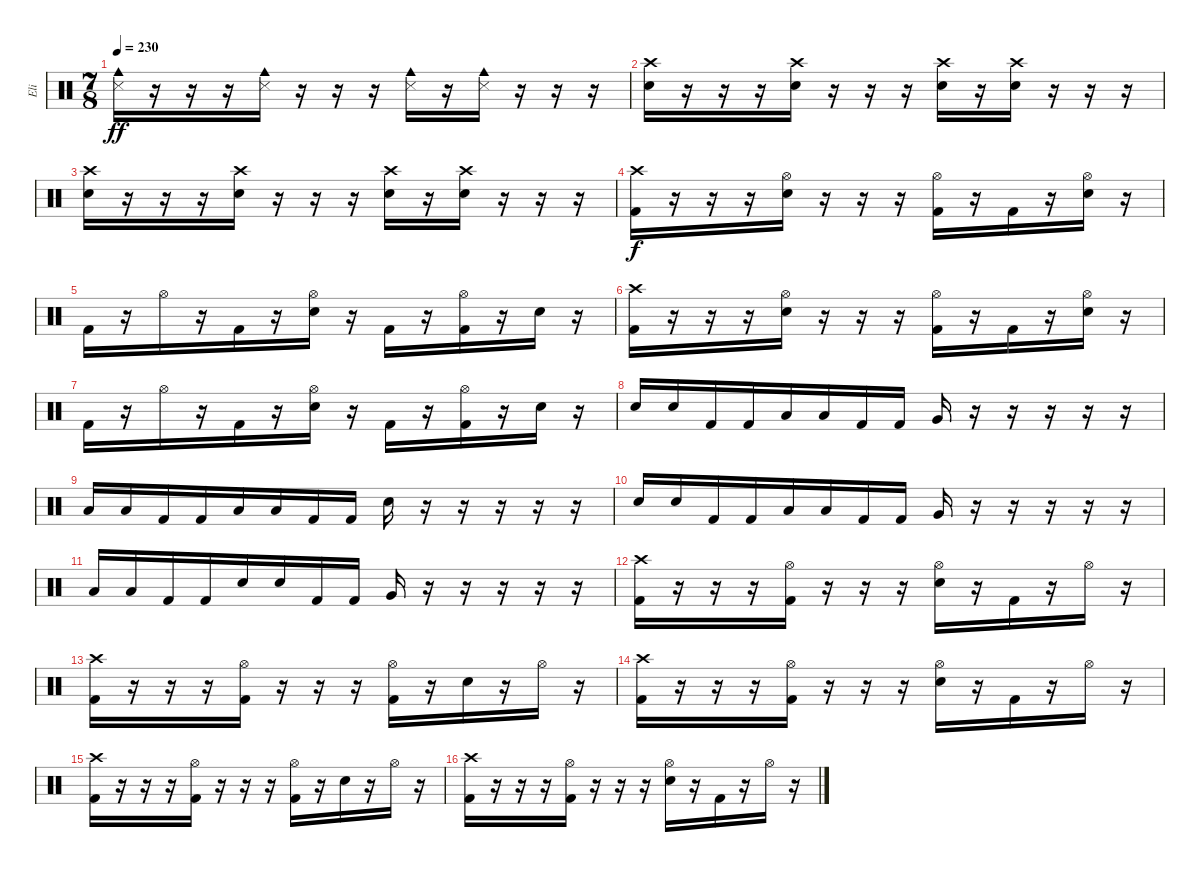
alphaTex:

\track ("Eli" "Eli") {instrument percussion}
\staff {score}
\articulation defaults
\ts (7 8)
\tempo 230
\clef neutral
\ks c
("Cowbell medium (hit)" "Snare (side stick) 3").16{dy ff} r.16 r.16 r.16 ("Cowbell medium (hit)" "Snare (side stick) 3").16 r.16 r.16 r.16 ("Cowbell medium (hit)" "Snare (side stick) 3").16 r.16 ("Cowbell medium (hit)" "Snare (side stick) 3").16 r.16 r.16 r.16 |
("Crash high (hit)" "Snare (hit) 2").16 r.16 r.16 r.16 ("Crash high (hit)" "Snare (hit) 2").16 r.16 r.16 r.16 ("Crash high (hit)" "Snare (hit) 2").16 r.16 ("Crash high (hit)" "Snare (hit) 2").16 r.16 r.16 r.16 |
("Crash high (hit)" "Snare (hit) 2").16 r.16 r.16 r.16 ("Crash high (hit)" "Snare (hit) 2").16 r.16 r.16 r.16 ("Crash high (hit)" "Snare (hit) 2").16 r.16 ("Crash high (hit)" "Snare (hit) 2").16 r.16 r.16 r.16 |
("Crash high (hit)" "Kick (hit) 2").16{dy f} r.16 r.16 r.16 ("Hi-Hat (open)" "Snare (hit) 2").16 r.16 r.16 r.16 ("Hi-Hat (open)" "Kick (hit) 2").16 r.16 "Kick (hit) 2".16 r.16 ("Hi-Hat (open)" "Snare (hit) 2").16 r.16 |
"Kick (hit) 2".16 r.16 "Hi-Hat (open)".16 r.16 "Kick (hit) 2".16 r.16 ("Hi-Hat (open)" "Snare (hit) 2").16 r.16 "Kick (hit) 2".16 r.16 ("Hi-Hat (open)" "Kick (hit) 2").16 r.16 "Snare (hit) 2".16 r.16 |
("Crash high (hit)" "Kick (hit) 2").16 r.16 r.16 r.16 ("Hi-Hat (open)" "Snare (hit) 2").16 r.16 r.16 r.16 ("Hi-Hat (open)" "Kick (hit) 2").16 r.16 "Kick (hit) 2".16 r.16 ("Hi-Hat (open)" "Snare (hit) 2").16 r.16 |
"Kick (hit) 2".16 r.16 "Hi-Hat (open)".16 r.16 "Kick (hit) 2".16 r.16 ("Hi-Hat (open)" "Snare (hit) 2").16 r.16 "Kick (hit) 2".16 r.16 ("Hi-Hat (open)" "Kick (hit) 2").16 r.16 "Snare (hit) 2".16 r.16 |
"Snare (hit) 2".16 "Snare (hit) 2".16 "Kick (hit) 2".16 "Kick (hit) 2".16 "Low Tom (hit)".16 "Low Tom (hit)".16 "Kick (hit) 2".16 "Kick (hit) 2".16 "Very Low Tom (hit)".16 r.16 r.16 r.16 r.16 r.16 |
"Low Tom (hit)".16 "Low Tom (hit)".16 "Kick (hit) 2".16 "Kick (hit) 2".16 "Low Tom (hit)".16 "Low Tom (hit)".16 "Kick (hit) 2".16 "Kick (hit) 2".16 "Snare (hit) 2".16 r.16 r.16 r.16 r.16 r.16 |
"Snare (hit) 2".16 "Snare (hit) 2".16 "Kick (hit) 2".16 "Kick (hit) 2".16 "Low Tom (hit)".16 "Low Tom (hit)".16 "Kick (hit) 2".16 "Kick (hit) 2".16 "Very Low Tom (hit)".16 r.16 r.16 r.16 r.16 r.16 |
"Low Tom (hit)".16 "Low Tom (hit)".16 "Kick (hit) 2".16 "Kick (hit) 2".16 "Snare (hit) 2".16 "Snare (hit) 2".16 "Kick (hit) 2".16 "Kick (hit) 2".16 "Very Low Tom (hit)".16 r.16 r.16 r.16 r.16 r.16 |
("Crash high (hit)" "Kick (hit) 2").16 r.16 r.16 r.16 ("Hi-Hat (open)" "Kick (hit) 2").16 r.16 r.16 r.16 ("Hi-Hat (open)" "Snare (hit) 2").16 r.16 "Kick (hit) 2".16 r.16 "Hi-Hat (open)".16 r.16 |
("Crash high (hit)" "Kick (hit) 2").16 r.16 r.16 r.16 ("Hi-Hat (open)" "Kick (hit) 2").16 r.16 r.16 r.16 ("Hi-Hat (open)" "Kick (hit) 2").16 r.16 "Snare (hit) 2".16 r.16 "Hi-Hat (open)".16 r.16 |
("Crash high (hit)" "Kick (hit) 2").16 r.16 r.16 r.16 ("Hi-Hat (open)" "Kick (hit) 2").16 r.16 r.16 r.16 ("Hi-Hat (open)" "Snare (hit) 2").16 r.16 "Kick (hit) 2".16 r.16 "Hi-Hat (open)".16 r.16 |
("Crash high (hit)" "Kick (hit) 2").16 r.16 r.16 r.16 ("Hi-Hat (open)" "Kick (hit) 2").16 r.16 r.16 r.16 ("Hi-Hat (open)" "Kick (hit) 2").16 r.16 "Snare (hit) 2".16 r.16 "Hi-Hat (open)".16 r.16 |
("Crash high (hit)" "Kick (hit) 2").16 r.16 r.16 r.16 ("Hi-Hat (open)" "Kick (hit) 2").16 r.16 r.16 r.16 ("Hi-Hat (open)" "Snare (hit) 2").16 r.16 "Kick (hit) 2".16 r.16 "Hi-Hat (open)".16 r.16
